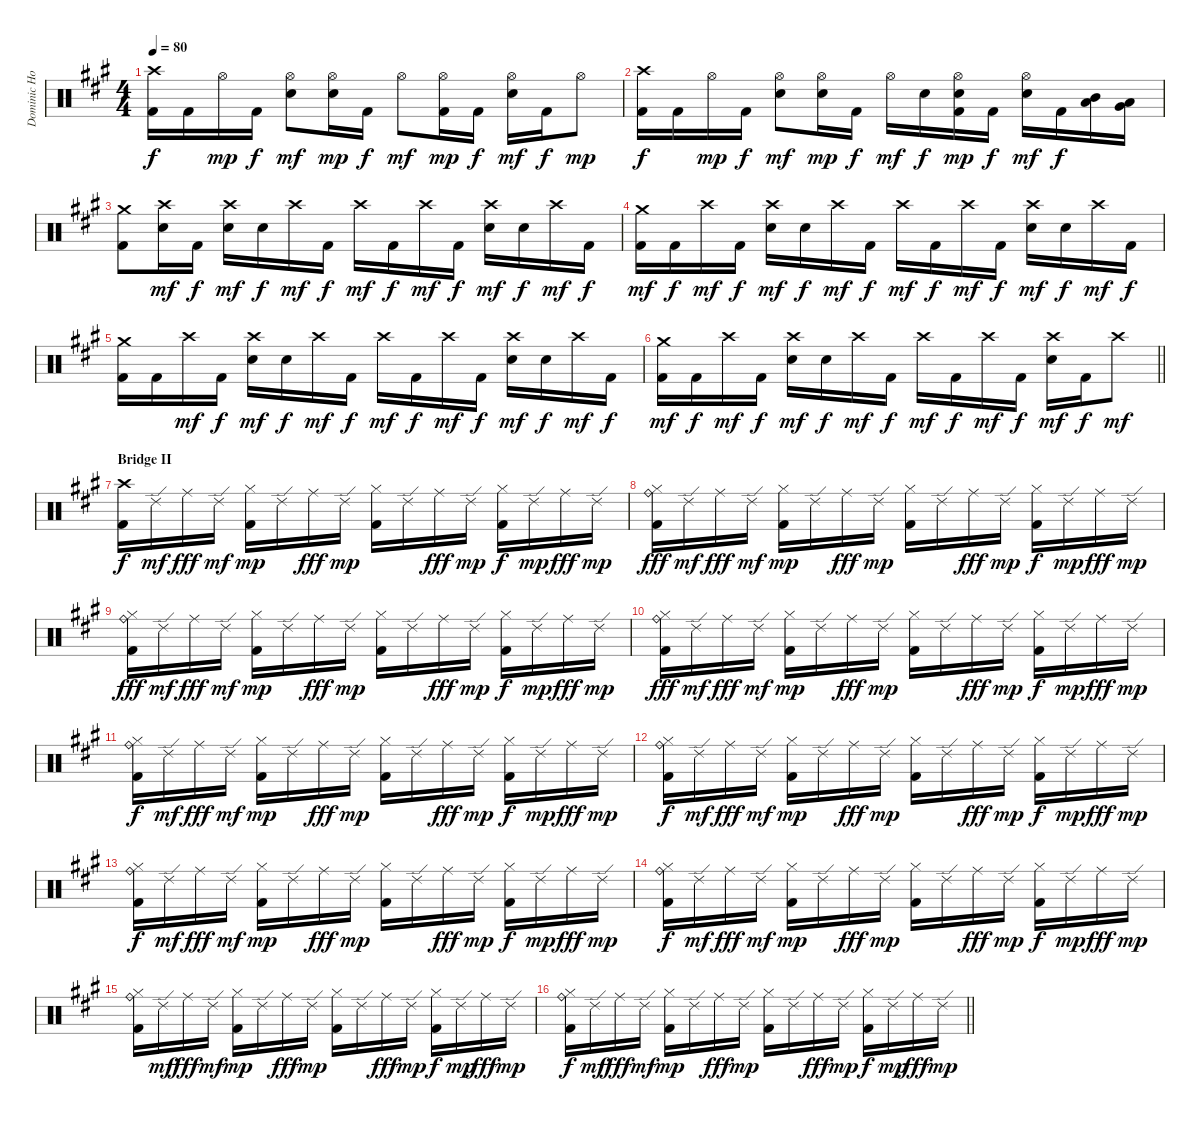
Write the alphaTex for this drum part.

\track ("Dominic Howard Drums" "Dominic Ho") {instrument percussion}
\staff {score}
\articulation defaults
\ts (4 4)
\tempo 80
\clef neutral
\ks a
("Crash high (hit)" "Kick (hit) 2").16{dy f} "Kick (hit) 2".16 "Hi-Hat (open)".16{dy mp} "Kick (hit) 2".16{dy f} ("Hi-Hat (open)" "Electric Snare (hit)").8{dy mf} ("Hi-Hat (open)" "Electric Snare (hit)").16{dy mp} "Kick (hit) 2".16{dy f} "Hi-Hat (open)".8{dy mf} ("Hi-Hat (open)" "Kick (hit) 2").16{dy mp} "Kick (hit) 2".16{dy f} ("Hi-Hat (open)" "Electric Snare (hit)").16{dy mf} "Kick (hit) 2".16{dy f} "Hi-Hat (open)".8{dy mp} |
("Crash high (hit)" "Kick (hit) 2").16{dy f} "Kick (hit) 2".16 "Hi-Hat (open)".16{dy mp} "Kick (hit) 2".16{dy f} ("Hi-Hat (open)" "Electric Snare (hit)").8{dy mf} ("Hi-Hat (open)" "Electric Snare (hit)").16{dy mp} "Kick (hit) 2".16{dy f} "Hi-Hat (open)".16{dy mf} "Electric Snare (hit)".16{dy f} ("Hi-Hat (open)" "Electric Snare (hit)" "Kick (hit) 2").16{dy mp} "Kick (hit) 2".16{dy f} ("Hi-Hat (open)" "Electric Snare (hit)").16{dy mf} "Kick (hit) 2".16{dy f} ("Mid Tom (hit)" "Low Tom (hit)").16{bd 60} ("Low Tom (hit)" "Very Low Tom (hit)").16{bd 60} |
("Crash medium (hit)" "Kick (hit) 2").8 ("Crash high (hit)" "Electric Snare (hit)").16{dy mf} "Kick (hit) 2".16{dy f} ("Crash high (hit)" "Electric Snare (hit)").16{dy mf} "Electric Snare (hit)".16{dy f} "Crash high (hit)".16{dy mf} "Kick (hit) 2".16{dy f} "Crash high (hit)".16{dy mf} "Kick (hit) 2".16{dy f} "Crash high (hit)".16{dy mf} "Kick (hit) 2".16{dy f} ("Crash high (hit)" "Electric Snare (hit)").16{dy mf} "Electric Snare (hit)".16{dy f} "Crash high (hit)".16{dy mf} "Kick (hit) 2".16{dy f} |
("Crash medium (hit)" "Kick (hit) 2").16{dy mf} "Kick (hit) 2".16{dy f} "Crash high (hit)".16{dy mf} "Kick (hit) 2".16{dy f} ("Crash high (hit)" "Electric Snare (hit)").16{dy mf} "Electric Snare (hit)".16{dy f} "Crash high (hit)".16{dy mf} "Kick (hit) 2".16{dy f} "Crash high (hit)".16{dy mf} "Kick (hit) 2".16{dy f} "Crash high (hit)".16{dy mf} "Kick (hit) 2".16{dy f} ("Crash high (hit)" "Electric Snare (hit)").16{dy mf} "Electric Snare (hit)".16{dy f} "Crash high (hit)".16{dy mf} "Kick (hit) 2".16{dy f} |
("Crash medium (hit)" "Kick (hit) 2").16 "Kick (hit) 2".16 "Crash high (hit)".16{dy mf} "Kick (hit) 2".16{dy f} ("Crash high (hit)" "Electric Snare (hit)").16{dy mf} "Electric Snare (hit)".16{dy f} "Crash high (hit)".16{dy mf} "Kick (hit) 2".16{dy f} "Crash high (hit)".16{dy mf} "Kick (hit) 2".16{dy f} "Crash high (hit)".16{dy mf} "Kick (hit) 2".16{dy f} ("Crash high (hit)" "Electric Snare (hit)").16{dy mf} "Electric Snare (hit)".16{dy f} "Crash high (hit)".16{dy mf} "Kick (hit) 2".16{dy f} |
\barLineRight lightlight
("Crash medium (hit)" "Kick (hit) 2").16{dy mf} "Kick (hit) 2".16{dy f} "Crash high (hit)".16{dy mf} "Kick (hit) 2".16{dy f} ("Crash high (hit)" "Electric Snare (hit)").16{dy mf} "Electric Snare (hit)".16{dy f} "Crash high (hit)".16{dy mf} "Kick (hit) 2".16{dy f} "Crash high (hit)".16{dy mf} "Kick (hit) 2".16{dy f} "Crash high (hit)".16{dy mf} "Kick (hit) 2".16{dy f} ("Crash high (hit)" "Electric Snare (hit)").16{dy mf} "Kick (hit) 2".16{dy f} "Crash high (hit)".8{dy mf} |
\section ("" "Bridge II")
("Crash high (hit)" "Kick (hit) 2").16{dy f} "Ride (edge) 2".16{dy mf} "Ride (middle)".16{dy fff} "Ride (edge) 2".16{dy mf} ("Hi-Hat (closed)" "Kick (hit) 2").16{dy mp} "Ride (edge) 2".16 "Ride (middle)".16{dy fff} "Ride (edge) 2".16{dy mp} ("Hi-Hat (closed)" "Kick (hit) 2").16 "Ride (edge) 2".16 "Ride (middle)".16{dy fff} "Ride (edge) 2".16{dy mp} ("Hi-Hat (closed)" "Kick (hit) 2").16{dy f} "Ride (edge) 2".16{dy mp} "Ride (middle)".16{dy fff} "Ride (edge) 2".16{dy mp} |
("Ride (bell)" "Hi-Hat (closed)" "Kick (hit) 2").16{dy fff} "Ride (edge) 2".16{dy mf} "Ride (middle)".16{dy fff} "Ride (edge) 2".16{dy mf} ("Hi-Hat (closed)" "Kick (hit) 2").16{dy mp} "Ride (edge) 2".16 "Ride (middle)".16{dy fff} "Ride (edge) 2".16{dy mp} ("Hi-Hat (closed)" "Kick (hit) 2").16 "Ride (edge) 2".16 "Ride (middle)".16{dy fff} "Ride (edge) 2".16{dy mp} ("Hi-Hat (closed)" "Kick (hit) 2").16{dy f} "Ride (edge) 2".16{dy mp} "Ride (middle)".16{dy fff} "Ride (edge) 2".16{dy mp} |
("Ride (bell)" "Hi-Hat (closed)" "Kick (hit) 2").16{dy fff} "Ride (edge) 2".16{dy mf} "Ride (middle)".16{dy fff} "Ride (edge) 2".16{dy mf} ("Hi-Hat (closed)" "Kick (hit) 2").16{dy mp} "Ride (edge) 2".16 "Ride (middle)".16{dy fff} "Ride (edge) 2".16{dy mp} ("Hi-Hat (closed)" "Kick (hit) 2").16 "Ride (edge) 2".16 "Ride (middle)".16{dy fff} "Ride (edge) 2".16{dy mp} ("Hi-Hat (closed)" "Kick (hit) 2").16{dy f} "Ride (edge) 2".16{dy mp} "Ride (middle)".16{dy fff} "Ride (edge) 2".16{dy mp} |
("Ride (bell)" "Hi-Hat (closed)" "Kick (hit) 2").16{dy fff} "Ride (edge) 2".16{dy mf} "Ride (middle)".16{dy fff} "Ride (edge) 2".16{dy mf} ("Hi-Hat (closed)" "Kick (hit) 2").16{dy mp} "Ride (edge) 2".16 "Ride (middle)".16{dy fff} "Ride (edge) 2".16{dy mp} ("Hi-Hat (closed)" "Kick (hit) 2").16 "Ride (edge) 2".16 "Ride (middle)".16{dy fff} "Ride (edge) 2".16{dy mp} ("Hi-Hat (closed)" "Kick (hit) 2").16{dy f} "Ride (edge) 2".16{dy mp} "Ride (middle)".16{dy fff} "Ride (edge) 2".16{dy mp} |
("Ride (bell)" "Hi-Hat (closed)" "Kick (hit) 2").16{dy f} "Ride (edge) 2".16{dy mf} "Ride (middle)".16{dy fff} "Ride (edge) 2".16{dy mf} ("Hi-Hat (closed)" "Kick (hit) 2").16{dy mp} "Ride (edge) 2".16 "Ride (middle)".16{dy fff} "Ride (edge) 2".16{dy mp} ("Hi-Hat (closed)" "Kick (hit) 2").16 "Ride (edge) 2".16 "Ride (middle)".16{dy fff} "Ride (edge) 2".16{dy mp} ("Hi-Hat (closed)" "Kick (hit) 2").16{dy f} "Ride (edge) 2".16{dy mp} "Ride (middle)".16{dy fff} "Ride (edge) 2".16{dy mp} |
("Ride (bell)" "Hi-Hat (closed)" "Kick (hit) 2").16{dy f} "Ride (edge) 2".16{dy mf} "Ride (middle)".16{dy fff} "Ride (edge) 2".16{dy mf} ("Hi-Hat (closed)" "Kick (hit) 2").16{dy mp} "Ride (edge) 2".16 "Ride (middle)".16{dy fff} "Ride (edge) 2".16{dy mp} ("Hi-Hat (closed)" "Kick (hit) 2").16 "Ride (edge) 2".16 "Ride (middle)".16{dy fff} "Ride (edge) 2".16{dy mp} ("Hi-Hat (closed)" "Kick (hit) 2").16{dy f} "Ride (edge) 2".16{dy mp} "Ride (middle)".16{dy fff} "Ride (edge) 2".16{dy mp} |
("Ride (bell)" "Hi-Hat (closed)" "Kick (hit) 2").16{dy f} "Ride (edge) 2".16{dy mf} "Ride (middle)".16{dy fff} "Ride (edge) 2".16{dy mf} ("Hi-Hat (closed)" "Kick (hit) 2").16{dy mp} "Ride (edge) 2".16 "Ride (middle)".16{dy fff} "Ride (edge) 2".16{dy mp} ("Hi-Hat (closed)" "Kick (hit) 2").16 "Ride (edge) 2".16 "Ride (middle)".16{dy fff} "Ride (edge) 2".16{dy mp} ("Hi-Hat (closed)" "Kick (hit) 2").16{dy f} "Ride (edge) 2".16{dy mp} "Ride (middle)".16{dy fff} "Ride (edge) 2".16{dy mp} |
("Ride (bell)" "Hi-Hat (closed)" "Kick (hit) 2").16{dy f} "Ride (edge) 2".16{dy mf} "Ride (middle)".16{dy fff} "Ride (edge) 2".16{dy mf} ("Hi-Hat (closed)" "Kick (hit) 2").16{dy mp} "Ride (edge) 2".16 "Ride (middle)".16{dy fff} "Ride (edge) 2".16{dy mp} ("Hi-Hat (closed)" "Kick (hit) 2").16 "Ride (edge) 2".16 "Ride (middle)".16{dy fff} "Ride (edge) 2".16{dy mp} ("Hi-Hat (closed)" "Kick (hit) 2").16{dy f} "Ride (edge) 2".16{dy mp} "Ride (middle)".16{dy fff} "Ride (edge) 2".16{dy mp} |
("Ride (bell)" "Hi-Hat (closed)" "Kick (hit) 2").16 "Ride (edge) 2".16{dy mf} "Ride (middle)".16{dy fff} "Ride (edge) 2".16{dy mf} ("Hi-Hat (closed)" "Kick (hit) 2").16{dy mp} "Ride (edge) 2".16 "Ride (middle)".16{dy fff} "Ride (edge) 2".16{dy mp} ("Hi-Hat (closed)" "Kick (hit) 2").16 "Ride (edge) 2".16 "Ride (middle)".16{dy fff} "Ride (edge) 2".16{dy mp} ("Hi-Hat (closed)" "Kick (hit) 2").16{dy f} "Ride (edge) 2".16{dy mp} "Ride (middle)".16{dy fff} "Ride (edge) 2".16{dy mp} |
\barLineRight lightlight
("Ride (bell)" "Hi-Hat (closed)" "Kick (hit) 2").16{dy f} "Ride (edge) 2".16{dy mf} "Ride (middle)".16{dy fff} "Ride (edge) 2".16{dy mf} ("Hi-Hat (closed)" "Kick (hit) 2").16{dy mp} "Ride (edge) 2".16 "Ride (middle)".16{dy fff} "Ride (edge) 2".16{dy mp} ("Hi-Hat (closed)" "Kick (hit) 2").16 "Ride (edge) 2".16 "Ride (middle)".16{dy fff} "Ride (edge) 2".16{dy mp} ("Hi-Hat (closed)" "Kick (hit) 2").16{dy f} "Ride (edge) 2".16{dy mp} "Ride (middle)".16{dy fff} "Ride (edge) 2".16{dy mp}
